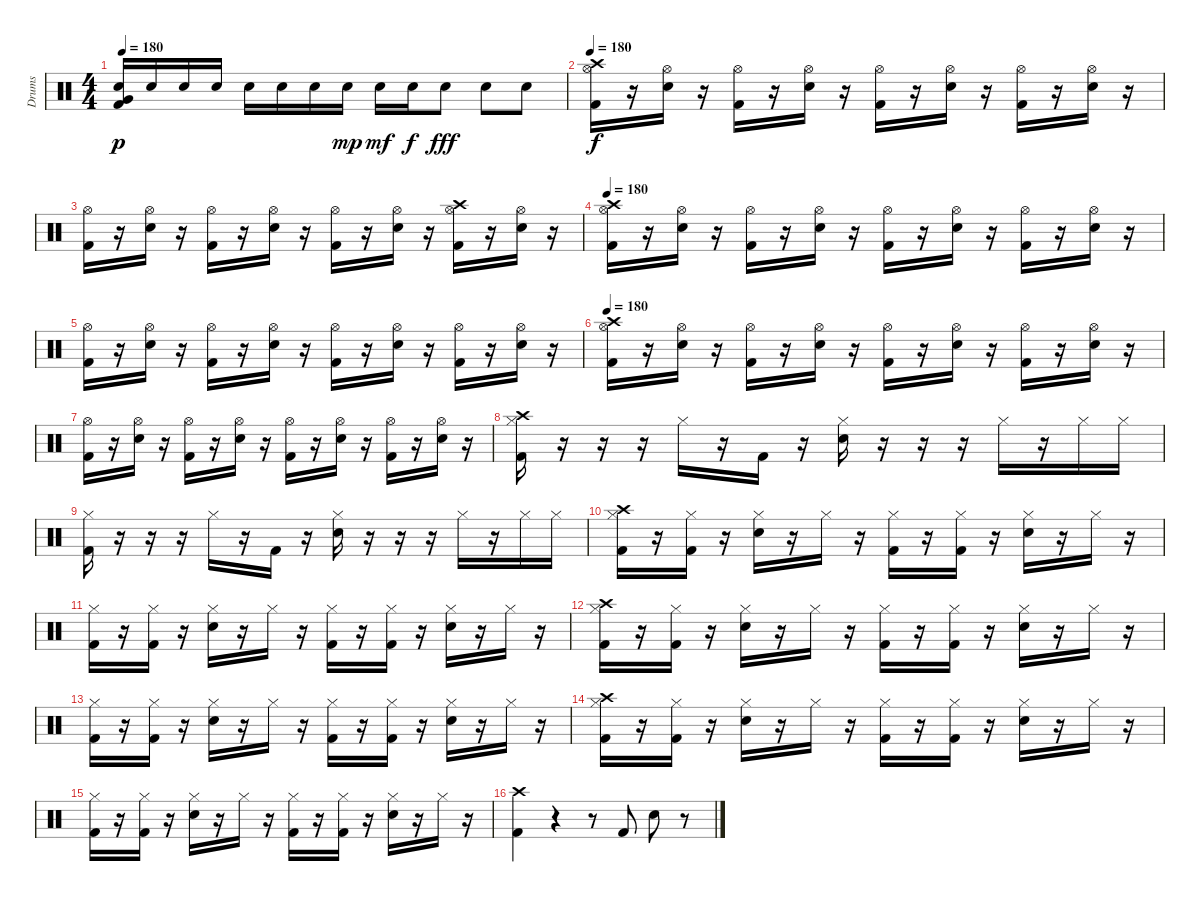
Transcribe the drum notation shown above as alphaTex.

\track ("Drums" "Drums") {instrument percussion}
\staff {score}
\articulation defaults
\ts (4 4)
\tempo 180
\tempo 160
\tempo 180
\clef neutral
\ks c
("Snare (hit) 2" "Very Low Tom (hit)" "Kick (hit) 2").16{dy p} "Snare (hit) 2".16 "Snare (hit) 2".16 "Snare (hit) 2".16 "Snare (hit) 2".16 "Snare (hit) 2".16 "Snare (hit) 2".16 "Snare (hit) 2".16{dy mp} "Snare (hit) 2".16{dy mf} "Snare (hit) 2".16{dy f} "Snare (hit) 2".8{dy fff} "Snare (hit) 2".8 "Snare (hit) 2".8 |
\tempo 180
("Hi-Hat (open)" "Kick (hit) 2" "Crash high (hit)").16{dy f} r.16 ("Hi-Hat (open)" "Snare (hit) 2").16 r.16 ("Hi-Hat (open)" "Kick (hit) 2").16 r.16 ("Hi-Hat (open)" "Snare (hit) 2").16 r.16 ("Hi-Hat (open)" "Kick (hit) 2").16 r.16 ("Hi-Hat (open)" "Snare (hit) 2").16 r.16 ("Hi-Hat (open)" "Kick (hit) 2").16 r.16 ("Hi-Hat (open)" "Snare (hit) 2").16 r.16 |
("Hi-Hat (open)" "Kick (hit) 2").16 r.16 ("Hi-Hat (open)" "Snare (hit) 2").16 r.16 ("Hi-Hat (open)" "Kick (hit) 2").16 r.16 ("Hi-Hat (open)" "Snare (hit) 2").16 r.16 ("Hi-Hat (open)" "Kick (hit) 2").16 r.16 ("Hi-Hat (open)" "Snare (hit) 2").16 r.16 ("Hi-Hat (open)" "Kick (hit) 2" "Crash high (hit)").16 r.16 ("Hi-Hat (open)" "Snare (hit) 2").16 r.16 |
\tempo 180
("Hi-Hat (open)" "Kick (hit) 2" "Crash high (hit)").16 r.16 ("Hi-Hat (open)" "Snare (hit) 2").16 r.16 ("Hi-Hat (open)" "Kick (hit) 2").16 r.16 ("Hi-Hat (open)" "Snare (hit) 2").16 r.16 ("Hi-Hat (open)" "Kick (hit) 2").16 r.16 ("Hi-Hat (open)" "Snare (hit) 2").16 r.16 ("Hi-Hat (open)" "Kick (hit) 2").16 r.16 ("Hi-Hat (open)" "Snare (hit) 2").16 r.16 |
("Hi-Hat (open)" "Kick (hit) 2").16 r.16 ("Hi-Hat (open)" "Snare (hit) 2").16 r.16 ("Hi-Hat (open)" "Kick (hit) 2").16 r.16 ("Hi-Hat (open)" "Snare (hit) 2").16 r.16 ("Hi-Hat (open)" "Kick (hit) 2").16 r.16 ("Hi-Hat (open)" "Snare (hit) 2").16 r.16 ("Hi-Hat (open)" "Kick (hit) 2").16 r.16 ("Hi-Hat (open)" "Snare (hit) 2").16 r.16 |
\tempo 180
("Hi-Hat (open)" "Kick (hit) 2" "Crash high (hit)").16 r.16 ("Hi-Hat (open)" "Snare (hit) 2").16 r.16 ("Hi-Hat (open)" "Kick (hit) 2").16 r.16 ("Hi-Hat (open)" "Snare (hit) 2").16 r.16 ("Hi-Hat (open)" "Kick (hit) 2").16 r.16 ("Hi-Hat (open)" "Snare (hit) 2").16 r.16 ("Hi-Hat (open)" "Kick (hit) 2").16 r.16 ("Hi-Hat (open)" "Snare (hit) 2").16 r.16 |
("Hi-Hat (open)" "Kick (hit) 2").16 r.16 ("Hi-Hat (open)" "Snare (hit) 2").16 r.16 ("Hi-Hat (open)" "Kick (hit) 2").16 r.16 ("Hi-Hat (open)" "Snare (hit) 2").16 r.16 ("Hi-Hat (open)" "Kick (hit) 2").16 r.16 ("Hi-Hat (open)" "Snare (hit) 2").16 r.16 ("Hi-Hat (open)" "Kick (hit) 2").16 r.16 ("Hi-Hat (open)" "Snare (hit) 2").16 r.16 |
("Hi-Hat (closed)" "Kick (hit) 2" "Crash high (hit)").16 r.16 r.16 r.16 "Hi-Hat (closed)".16 r.16 "Kick (hit) 2".16 r.16 ("Hi-Hat (closed)" "Snare (hit) 2").16 r.16 r.16 r.16 "Hi-Hat (closed)".16 r.16 "Hi-Hat (closed)".16 "Hi-Hat (closed)".16 |
("Hi-Hat (closed)" "Kick (hit) 2").16 r.16 r.16 r.16 "Hi-Hat (closed)".16 r.16 "Kick (hit) 2".16 r.16 ("Hi-Hat (closed)" "Snare (hit) 2").16 r.16 r.16 r.16 "Hi-Hat (closed)".16 r.16 "Hi-Hat (closed)".16 "Hi-Hat (closed)".16 |
("Hi-Hat (closed)" "Kick (hit) 2" "Crash high (hit)").16 r.16 ("Hi-Hat (closed)" "Kick (hit) 2").16 r.16 ("Hi-Hat (closed)" "Snare (hit) 2").16 r.16 "Hi-Hat (closed)".16 r.16 ("Hi-Hat (closed)" "Kick (hit) 2").16 r.16 ("Hi-Hat (closed)" "Kick (hit) 2").16 r.16 ("Hi-Hat (closed)" "Snare (hit) 2").16 r.16 "Hi-Hat (closed)".16 r.16 |
("Hi-Hat (closed)" "Kick (hit) 2").16 r.16 ("Hi-Hat (closed)" "Kick (hit) 2").16 r.16 ("Hi-Hat (closed)" "Snare (hit) 2").16 r.16 "Hi-Hat (closed)".16 r.16 ("Hi-Hat (closed)" "Kick (hit) 2").16 r.16 ("Hi-Hat (closed)" "Kick (hit) 2").16 r.16 ("Hi-Hat (closed)" "Snare (hit) 2").16 r.16 "Hi-Hat (closed)".16 r.16 |
("Hi-Hat (closed)" "Kick (hit) 2" "Crash high (hit)").16 r.16 ("Hi-Hat (closed)" "Kick (hit) 2").16 r.16 ("Hi-Hat (closed)" "Snare (hit) 2").16 r.16 "Hi-Hat (closed)".16 r.16 ("Hi-Hat (closed)" "Kick (hit) 2").16 r.16 ("Hi-Hat (closed)" "Kick (hit) 2").16 r.16 ("Hi-Hat (closed)" "Snare (hit) 2").16 r.16 "Hi-Hat (closed)".16 r.16 |
("Hi-Hat (closed)" "Kick (hit) 2").16 r.16 ("Hi-Hat (closed)" "Kick (hit) 2").16 r.16 ("Hi-Hat (closed)" "Snare (hit) 2").16 r.16 "Hi-Hat (closed)".16 r.16 ("Hi-Hat (closed)" "Kick (hit) 2").16 r.16 ("Hi-Hat (closed)" "Kick (hit) 2").16 r.16 ("Hi-Hat (closed)" "Snare (hit) 2").16 r.16 "Hi-Hat (closed)".16 r.16 |
("Hi-Hat (closed)" "Kick (hit) 2" "Crash high (hit)").16 r.16 ("Hi-Hat (closed)" "Kick (hit) 2").16 r.16 ("Hi-Hat (closed)" "Snare (hit) 2").16 r.16 "Hi-Hat (closed)".16 r.16 ("Hi-Hat (closed)" "Kick (hit) 2").16 r.16 ("Hi-Hat (closed)" "Kick (hit) 2").16 r.16 ("Hi-Hat (closed)" "Snare (hit) 2").16 r.16 "Hi-Hat (closed)".16 r.16 |
("Hi-Hat (closed)" "Kick (hit) 2").16 r.16 ("Hi-Hat (closed)" "Kick (hit) 2").16 r.16 ("Hi-Hat (closed)" "Snare (hit) 2").16 r.16 "Hi-Hat (closed)".16 r.16 ("Hi-Hat (closed)" "Kick (hit) 2").16 r.16 ("Hi-Hat (closed)" "Kick (hit) 2").16 r.16 ("Hi-Hat (closed)" "Snare (hit) 2").16 r.16 "Hi-Hat (closed)".16 r.16 |
("Kick (hit) 2" "Crash high (hit)").4 r.4 r.8 "Kick (hit) 2".8 "Snare (hit) 2".8 r.8
